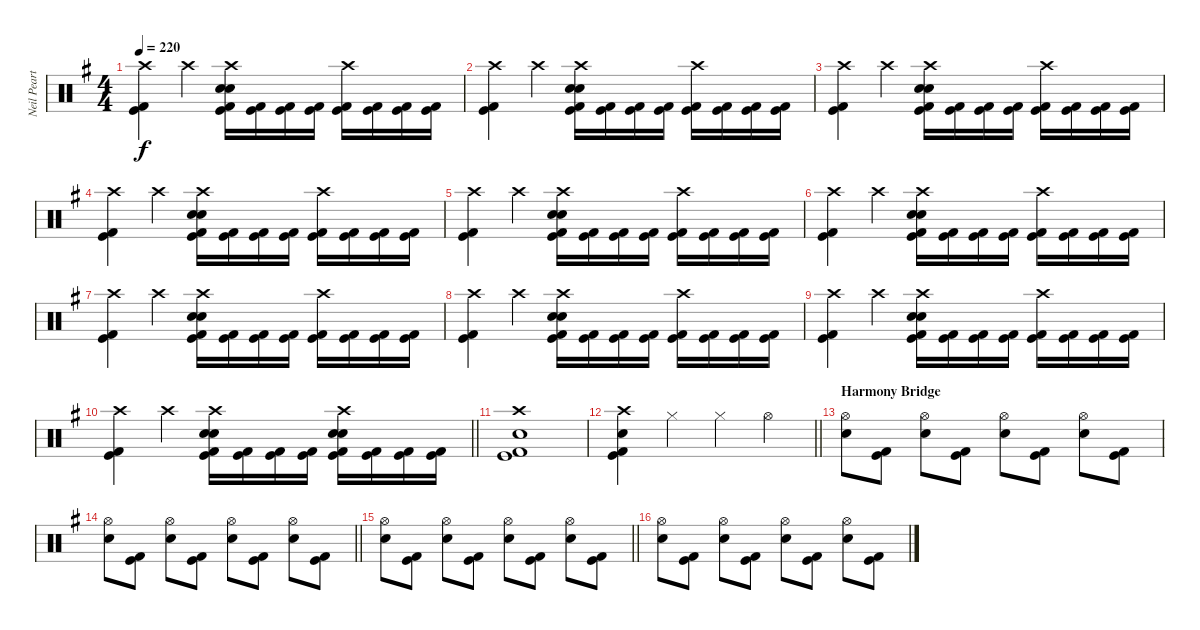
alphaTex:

\track ("Neil Peart" "Neil Peart") {instrument percussion}
\staff {score}
\articulation defaults
\ts (4 4)
\tempo 220
\clef neutral
\ks g
("Crash high (hit)" "Kick (hit)" "Kick (hit) 2").4{dy f} "Crash high (hit)".4 ("Snare (hit) 2" "Crash high (hit)" "Snare (hit) 2" "Kick (hit)" "Kick (hit) 2").16 ("Kick (hit)" "Kick (hit) 2").16 ("Kick (hit)" "Kick (hit) 2").16 ("Kick (hit)" "Kick (hit) 2").16 ("Crash high (hit)" "Kick (hit)" "Kick (hit) 2").16 ("Kick (hit)" "Kick (hit) 2").16 ("Kick (hit)" "Kick (hit) 2").16 ("Kick (hit)" "Kick (hit) 2").16 |
("Crash high (hit)" "Kick (hit)" "Kick (hit) 2").4 "Crash high (hit)".4 ("Snare (hit) 2" "Crash high (hit)" "Snare (hit) 2" "Kick (hit)" "Kick (hit) 2").16 ("Kick (hit)" "Kick (hit) 2").16 ("Kick (hit)" "Kick (hit) 2").16 ("Kick (hit)" "Kick (hit) 2").16 ("Crash high (hit)" "Kick (hit)" "Kick (hit) 2").16 ("Kick (hit)" "Kick (hit) 2").16 ("Kick (hit)" "Kick (hit) 2").16 ("Kick (hit)" "Kick (hit) 2").16 |
("Crash high (hit)" "Kick (hit)" "Kick (hit) 2").4 "Crash high (hit)".4 ("Snare (hit) 2" "Crash high (hit)" "Snare (hit) 2" "Kick (hit)" "Kick (hit) 2").16 ("Kick (hit)" "Kick (hit) 2").16 ("Kick (hit)" "Kick (hit) 2").16 ("Kick (hit)" "Kick (hit) 2").16 ("Crash high (hit)" "Kick (hit)" "Kick (hit) 2").16 ("Kick (hit)" "Kick (hit) 2").16 ("Kick (hit)" "Kick (hit) 2").16 ("Kick (hit)" "Kick (hit) 2").16 |
("Crash high (hit)" "Kick (hit)" "Kick (hit) 2").4 "Crash high (hit)".4 ("Snare (hit) 2" "Crash high (hit)" "Snare (hit) 2" "Kick (hit)" "Kick (hit) 2").16 ("Kick (hit)" "Kick (hit) 2").16 ("Kick (hit)" "Kick (hit) 2").16 ("Kick (hit)" "Kick (hit) 2").16 ("Crash high (hit)" "Kick (hit)" "Kick (hit) 2").16 ("Kick (hit)" "Kick (hit) 2").16 ("Kick (hit)" "Kick (hit) 2").16 ("Kick (hit)" "Kick (hit) 2").16 |
("Crash high (hit)" "Kick (hit)" "Kick (hit) 2").4 "Crash high (hit)".4 ("Snare (hit) 2" "Crash high (hit)" "Snare (hit) 2" "Kick (hit)" "Kick (hit) 2").16 ("Kick (hit)" "Kick (hit) 2").16 ("Kick (hit)" "Kick (hit) 2").16 ("Kick (hit)" "Kick (hit) 2").16 ("Crash high (hit)" "Kick (hit)" "Kick (hit) 2").16 ("Kick (hit)" "Kick (hit) 2").16 ("Kick (hit)" "Kick (hit) 2").16 ("Kick (hit)" "Kick (hit) 2").16 |
("Crash high (hit)" "Kick (hit)" "Kick (hit) 2").4 "Crash high (hit)".4 ("Snare (hit) 2" "Crash high (hit)" "Snare (hit) 2" "Kick (hit)" "Kick (hit) 2").16 ("Kick (hit)" "Kick (hit) 2").16 ("Kick (hit)" "Kick (hit) 2").16 ("Kick (hit)" "Kick (hit) 2").16 ("Crash high (hit)" "Kick (hit)" "Kick (hit) 2").16 ("Kick (hit)" "Kick (hit) 2").16 ("Kick (hit)" "Kick (hit) 2").16 ("Kick (hit)" "Kick (hit) 2").16 |
("Crash high (hit)" "Kick (hit)" "Kick (hit) 2").4 "Crash high (hit)".4 ("Snare (hit) 2" "Crash high (hit)" "Snare (hit) 2" "Kick (hit)" "Kick (hit) 2").16 ("Kick (hit)" "Kick (hit) 2").16 ("Kick (hit)" "Kick (hit) 2").16 ("Kick (hit)" "Kick (hit) 2").16 ("Crash high (hit)" "Kick (hit)" "Kick (hit) 2").16 ("Kick (hit)" "Kick (hit) 2").16 ("Kick (hit)" "Kick (hit) 2").16 ("Kick (hit)" "Kick (hit) 2").16 |
("Crash high (hit)" "Kick (hit)" "Kick (hit) 2").4 "Crash high (hit)".4 ("Snare (hit) 2" "Crash high (hit)" "Snare (hit) 2" "Kick (hit)" "Kick (hit) 2").16 ("Kick (hit)" "Kick (hit) 2").16 ("Kick (hit)" "Kick (hit) 2").16 ("Kick (hit)" "Kick (hit) 2").16 ("Crash high (hit)" "Kick (hit)" "Kick (hit) 2").16 ("Kick (hit)" "Kick (hit) 2").16 ("Kick (hit)" "Kick (hit) 2").16 ("Kick (hit)" "Kick (hit) 2").16 |
("Crash high (hit)" "Kick (hit)" "Kick (hit) 2").4 "Crash high (hit)".4 ("Snare (hit) 2" "Crash high (hit)" "Snare (hit) 2" "Kick (hit)" "Kick (hit) 2").16 ("Kick (hit)" "Kick (hit) 2").16 ("Kick (hit)" "Kick (hit) 2").16 ("Kick (hit)" "Kick (hit) 2").16 ("Crash high (hit)" "Kick (hit)" "Kick (hit) 2").16 ("Kick (hit)" "Kick (hit) 2").16 ("Kick (hit)" "Kick (hit) 2").16 ("Kick (hit)" "Kick (hit) 2").16 |
\barLineRight lightlight
("Crash high (hit)" "Kick (hit)" "Kick (hit) 2").4 "Crash high (hit)".4 ("Snare (hit) 2" "Crash high (hit)" "Snare (hit) 2" "Kick (hit)" "Kick (hit) 2").16 ("Kick (hit)" "Kick (hit) 2").16 ("Kick (hit)" "Kick (hit) 2").16 ("Kick (hit)" "Kick (hit) 2").16 ("Snare (hit) 2" "Crash high (hit)" "Snare (hit) 2" "Kick (hit)" "Kick (hit) 2").16 ("Kick (hit)" "Kick (hit) 2").16 ("Kick (hit)" "Kick (hit) 2").16 ("Kick (hit)" "Kick (hit) 2").16 |
("Crash high (hit)" "Snare (hit) 2" "Kick (hit)" "Kick (hit) 2").1 |
\barLineRight lightlight
("Crash high (hit)" "Snare (hit) 2" "Kick (hit)" "Kick (hit) 2").4 "Hi-Hat (closed)".4 "Hi-Hat (closed)".4 "Hi-Hat (open)".4 |
\section ("" "Harmony Bridge")
("Hi-Hat (open)" "Snare (hit) 2").8 ("Kick (hit) 2" "Kick (hit)").8 ("Hi-Hat (open)" "Snare (hit) 2").8 ("Kick (hit) 2" "Kick (hit)").8 ("Hi-Hat (open)" "Snare (hit) 2").8 ("Kick (hit) 2" "Kick (hit)").8 ("Hi-Hat (open)" "Snare (hit) 2").8 ("Kick (hit) 2" "Kick (hit)").8 |
\barLineRight lightlight
("Hi-Hat (open)" "Snare (hit) 2").8 ("Kick (hit) 2" "Kick (hit)").8 ("Hi-Hat (open)" "Snare (hit) 2").8 ("Kick (hit) 2" "Kick (hit)").8 ("Hi-Hat (open)" "Snare (hit) 2").8 ("Kick (hit) 2" "Kick (hit)").8 ("Hi-Hat (open)" "Snare (hit) 2").8 ("Kick (hit) 2" "Kick (hit)").8 |
\barLineRight lightlight
("Hi-Hat (open)" "Snare (hit) 2").8 ("Kick (hit) 2" "Kick (hit)").8 ("Hi-Hat (open)" "Snare (hit) 2").8 ("Kick (hit) 2" "Kick (hit)").8 ("Hi-Hat (open)" "Snare (hit) 2").8 ("Kick (hit) 2" "Kick (hit)").8 ("Hi-Hat (open)" "Snare (hit) 2").8 ("Kick (hit) 2" "Kick (hit)").8 |
("Hi-Hat (open)" "Snare (hit) 2").8 ("Kick (hit) 2" "Kick (hit)").8 ("Hi-Hat (open)" "Snare (hit) 2").8 ("Kick (hit) 2" "Kick (hit)").8 ("Hi-Hat (open)" "Snare (hit) 2").8 ("Kick (hit) 2" "Kick (hit)").8 ("Hi-Hat (open)" "Snare (hit) 2").8 ("Kick (hit) 2" "Kick (hit)").8
